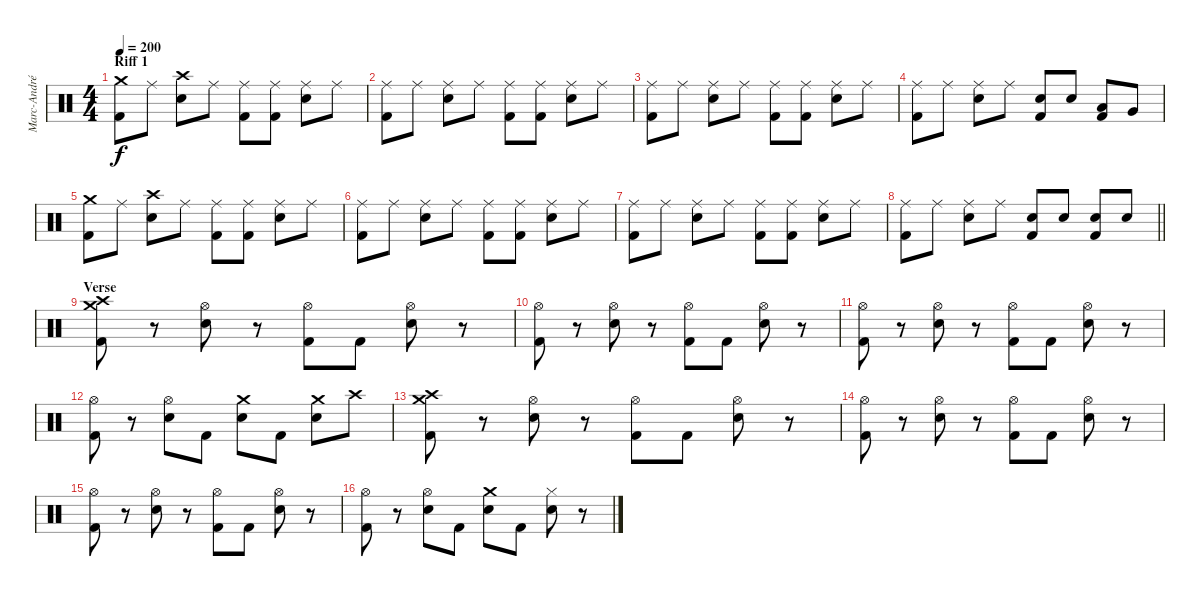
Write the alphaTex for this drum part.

\track ("Marc-André Barabé" "Marc-André") {instrument percussion}
\staff {score}
\articulation defaults
\ts (4 4)
\section ("" "Riff 1")
\tempo 200
\clef neutral
\ks c
("Crash medium (hit)" "Kick (hit) 2").8{dy f} "Ride (middle)".8 ("Crash high (hit)" "Electric Snare (hit)").8 "Ride (middle)".8 ("Ride (middle)" "Kick (hit) 2").8 ("Ride (middle)" "Kick (hit) 2").8 ("Ride (middle)" "Electric Snare (hit)").8 "Ride (middle)".8 |
("Ride (middle)" "Kick (hit) 2").8 "Ride (middle)".8 ("Ride (middle)" "Electric Snare (hit)").8 "Ride (middle)".8 ("Ride (middle)" "Kick (hit) 2").8 ("Ride (middle)" "Kick (hit) 2").8 ("Ride (middle)" "Electric Snare (hit)").8 "Ride (middle)".8 |
("Ride (middle)" "Kick (hit) 2").8 "Ride (middle)".8 ("Ride (middle)" "Electric Snare (hit)").8 "Ride (middle)".8 ("Ride (middle)" "Kick (hit) 2").8 ("Ride (middle)" "Kick (hit) 2").8 ("Ride (middle)" "Electric Snare (hit)").8 "Ride (middle)".8 |
("Ride (middle)" "Kick (hit) 2").8 "Ride (middle)".8 ("Ride (middle)" "Electric Snare (hit)").8 "Ride (middle)".8 ("Electric Snare (hit)"{tr (4 32)} "Kick (hit) 2").8 "Electric Snare (hit)"{tr (4 32)}.8 ("Low Tom (hit)"{tr (4 32)} "Kick (hit) 2").8 "Very Low Tom (hit)"{tr (4 32)}.8 |
("Crash medium (hit)" "Kick (hit) 2").8 "Ride (middle)".8 ("Crash high (hit)" "Electric Snare (hit)").8 "Ride (middle)".8 ("Ride (middle)" "Kick (hit) 2").8 ("Ride (middle)" "Kick (hit) 2").8 ("Ride (middle)" "Electric Snare (hit)").8 "Ride (middle)".8 |
("Ride (middle)" "Kick (hit) 2").8 "Ride (middle)".8 ("Ride (middle)" "Electric Snare (hit)").8 "Ride (middle)".8 ("Ride (middle)" "Kick (hit) 2").8 ("Ride (middle)" "Kick (hit) 2").8 ("Ride (middle)" "Electric Snare (hit)").8 "Ride (middle)".8 |
("Ride (middle)" "Kick (hit) 2").8 "Ride (middle)".8 ("Ride (middle)" "Electric Snare (hit)").8 "Ride (middle)".8 ("Ride (middle)" "Kick (hit) 2").8 ("Ride (middle)" "Kick (hit) 2").8 ("Ride (middle)" "Electric Snare (hit)").8 "Ride (middle)".8 |
\barLineRight lightlight
("Ride (middle)" "Kick (hit) 2").8 "Ride (middle)".8 ("Ride (middle)" "Electric Snare (hit)").8 "Ride (middle)".8 ("Electric Snare (hit)"{tr (4 32)} "Kick (hit) 2").8 "Electric Snare (hit)"{tr (4 32)}.8 ("Electric Snare (hit)"{tr (4 32)} "Kick (hit) 2").8 "Electric Snare (hit)"{tr (4 32)}.8 |
\section ("" "Verse")
("Crash high (hit)" "Crash medium (hit)" "Kick (hit) 2").8 r.8 ("Hi-Hat (open)" "Electric Snare (hit)").8 r.8 ("Hi-Hat (open)" "Kick (hit) 2").8 "Kick (hit) 2".8 ("Hi-Hat (open)" "Electric Snare (hit)").8 r.8 |
("Hi-Hat (open)" "Kick (hit) 2").8 r.8 ("Hi-Hat (open)" "Electric Snare (hit)").8 r.8 ("Hi-Hat (open)" "Kick (hit) 2").8 "Kick (hit) 2".8 ("Hi-Hat (open)" "Electric Snare (hit)").8 r.8 |
("Hi-Hat (open)" "Kick (hit) 2").8 r.8 ("Hi-Hat (open)" "Electric Snare (hit)").8 r.8 ("Hi-Hat (open)" "Kick (hit) 2").8 "Kick (hit) 2".8 ("Hi-Hat (open)" "Electric Snare (hit)").8 r.8 |
("Hi-Hat (open)" "Kick (hit) 2").8 r.8 ("Hi-Hat (open)" "Electric Snare (hit)").8 "Kick (hit) 2".8 ("Crash medium (hit)" "Electric Snare (hit)").8 "Kick (hit) 2".8 ("Crash medium (hit)" "Electric Snare (hit)").8 "Crash high (hit)".8 |
("Crash high (hit)" "Crash medium (hit)" "Kick (hit) 2").8 r.8 ("Hi-Hat (open)" "Electric Snare (hit)").8 r.8 ("Hi-Hat (open)" "Kick (hit) 2").8 "Kick (hit) 2".8 ("Hi-Hat (open)" "Electric Snare (hit)").8 r.8 |
("Hi-Hat (open)" "Kick (hit) 2").8 r.8 ("Hi-Hat (open)" "Electric Snare (hit)").8 r.8 ("Hi-Hat (open)" "Kick (hit) 2").8 "Kick (hit) 2".8 ("Hi-Hat (open)" "Electric Snare (hit)").8 r.8 |
("Hi-Hat (open)" "Kick (hit) 2").8 r.8 ("Hi-Hat (open)" "Electric Snare (hit)").8 r.8 ("Hi-Hat (open)" "Kick (hit) 2").8 "Kick (hit) 2".8 ("Hi-Hat (open)" "Electric Snare (hit)").8 r.8 |
("Hi-Hat (open)" "Kick (hit) 2").8 r.8 ("Hi-Hat (open)" "Electric Snare (hit)").8 "Kick (hit) 2".8 ("Crash medium (hit)" "Electric Snare (hit)").8 "Kick (hit) 2".8 ("Hi-Hat (closed)" "Electric Snare (hit)").8 r.8
